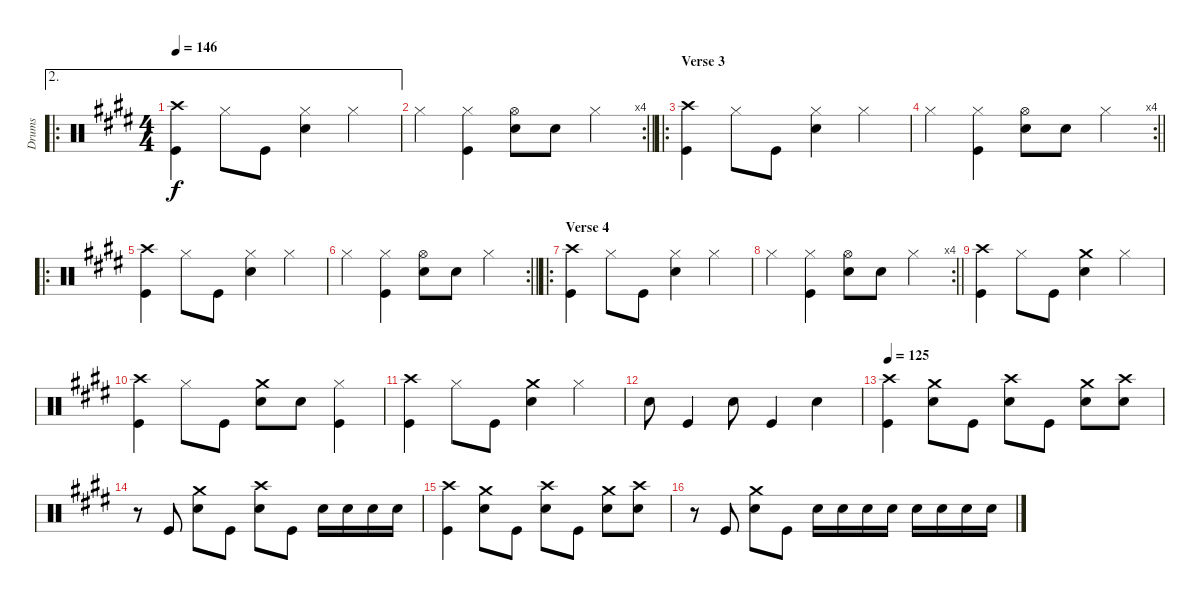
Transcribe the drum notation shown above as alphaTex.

\track ("Drums" "Drums") {instrument percussion}
\staff {score}
\articulation defaults
\ae 2
\ro
\ts (4 4)
\tempo 146
\clef neutral
\ks e
("Crash high (hit)" "Kick (hit)").4{dy f} "Hi-Hat (closed)".8 "Kick (hit)".8 ("Hi-Hat (closed)" "Snare (hit) 2").4 "Hi-Hat (closed)".4 |
\rc 4
\barLineRight lightlight "Hi-Hat (closed)".4
("Hi-Hat (closed)" "Kick (hit)").4 ("Hi-Hat (open)" "Snare (hit) 2").8 "Snare (hit) 2".8 "Hi-Hat (closed)".4 |
\ro
\section ("" "Verse 3")
("Crash high (hit)" "Kick (hit)").4 "Hi-Hat (closed)".8 "Kick (hit)".8 ("Hi-Hat (closed)" "Snare (hit) 2").4 "Hi-Hat (closed)".4 |
\rc 4
\barLineRight lightlight "Hi-Hat (closed)".4
("Hi-Hat (closed)" "Kick (hit)").4 ("Hi-Hat (open)" "Snare (hit) 2").8 "Snare (hit) 2".8 "Hi-Hat (closed)".4 |
\ro
("Crash high (hit)" "Kick (hit)").4 "Hi-Hat (closed)".8 "Kick (hit)".8 ("Hi-Hat (closed)" "Snare (hit) 2").4 "Hi-Hat (closed)".4 |
\rc 2
\barLineRight lightlight "Hi-Hat (closed)".4
("Hi-Hat (closed)" "Kick (hit)").4 ("Hi-Hat (open)" "Snare (hit) 2").8 "Snare (hit) 2".8 "Hi-Hat (closed)".4 |
\ro
\section ("" "Verse 4")
("Crash high (hit)" "Kick (hit)").4 "Hi-Hat (closed)".8 "Kick (hit)".8 ("Hi-Hat (closed)" "Snare (hit) 2").4 "Hi-Hat (closed)".4 |
\rc 4
\barLineRight lightlight "Hi-Hat (closed)".4
("Hi-Hat (closed)" "Kick (hit)").4 ("Hi-Hat (open)" "Snare (hit) 2").8 "Snare (hit) 2".8 "Hi-Hat (closed)".4 |
("Crash high (hit)" "Kick (hit)").4 "Hi-Hat (closed)".8 "Kick (hit)".8 ("Crash medium (hit)" "Snare (hit) 2").4 "Hi-Hat (closed)".4 |
("Crash high (hit)" "Kick (hit)").4 "Hi-Hat (closed)".8 "Kick (hit)".8 ("Crash medium (hit)" "Snare (hit) 2").8 "Snare (hit) 2".8 ("Hi-Hat (closed)" "Kick (hit)").4 |
("Crash high (hit)" "Kick (hit)").4 "Hi-Hat (closed)".8 "Kick (hit)".8 ("Crash medium (hit)" "Snare (hit) 2").4 "Hi-Hat (closed)".4 |
"Snare (hit) 2".8 "Kick (hit)".4 "Snare (hit) 2".8 "Kick (hit)".4 "Snare (hit) 2".4 |
\tempo 125
("Crash high (hit)" "Kick (hit)").4 ("Crash medium (hit)" "Snare (hit) 2").8 "Kick (hit)".8 ("Crash high (hit)" "Snare (hit) 2").8 "Kick (hit)".8 ("Crash medium (hit)" "Snare (hit) 2").8 ("Crash high (hit)" "Snare (hit) 2").8 |
r.8 "Kick (hit)".8 ("Crash medium (hit)" "Snare (hit) 2").8 "Kick (hit)".8 ("Crash high (hit)" "Snare (hit) 2").8 "Kick (hit)".8 "Snare (hit) 2".16 "Snare (hit) 2".16 "Snare (hit) 2".16 "Snare (hit) 2".16 |
("Crash high (hit)" "Kick (hit)").4 ("Crash medium (hit)" "Snare (hit) 2").8 "Kick (hit)".8 ("Crash high (hit)" "Snare (hit) 2").8 "Kick (hit)".8 ("Crash medium (hit)" "Snare (hit) 2").8 ("Crash high (hit)" "Snare (hit) 2").8 |
r.8 "Kick (hit)".8 ("Crash medium (hit)" "Snare (hit) 2").8 "Kick (hit)".8 "Snare (hit) 2".16 "Snare (hit) 2".16 "Snare (hit) 2".16 "Snare (hit) 2".16 "Snare (hit) 2".16 "Snare (hit) 2".16 "Snare (hit) 2".16 "Snare (hit) 2".16
